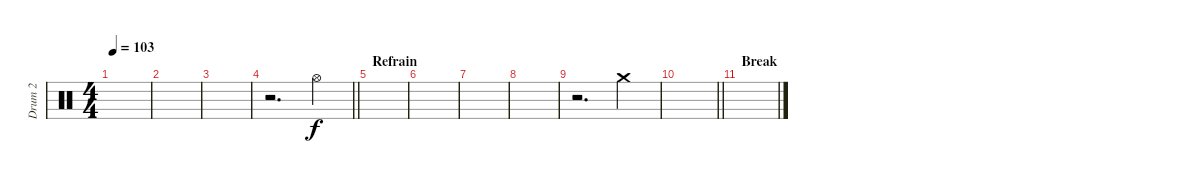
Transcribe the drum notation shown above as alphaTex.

\track ("Drum 2" "Drum 2") {instrument percussion}
\staff {score}
\articulation defaults
\ts (4 4)
\tempo 103
\clef neutral
\ks c
|
|
|
\barLineRight lightlight
r.2{d} "Hi-Hat (open)".4 |
\section ("" "Refrain")
|
|
|
|
r.2{d} "Crash medium (hit)".4 |
\barLineRight lightlight
|
\section ("" "Break")
